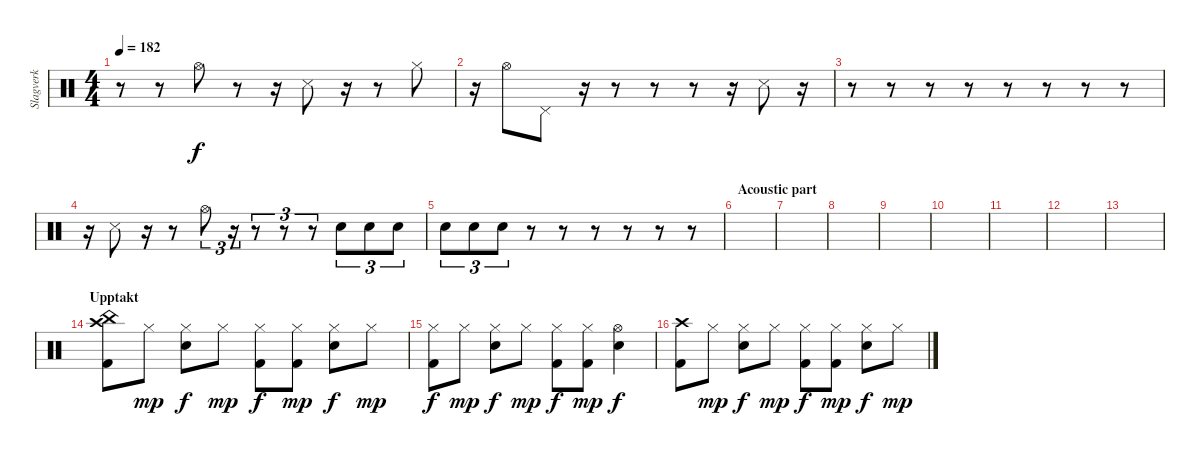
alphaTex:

\track ("Slagverk" "Slagverk") {instrument percussion}
\staff {score}
\articulation defaults
\ts (4 4)
\tempo 182
\clef neutral
\ks c
r.8{dy fff} r.8 "Hi-Hat (open)".8{dy f} r.8 r.16 "Snare (side stick) 3".8 r.16 r.8 "Hi-Hat (closed)".8 |
r.16 "Hi-Hat (open)".8 "Pedal Hi-Hat (hit)".8 r.16 r.8 r.8 r.8 r.16 "Snare (side stick) 3".8 r.16 |
r.8 r.8 r.8 r.8 r.8 r.8 r.8 r.8 |
r.16 "Snare (side stick) 3".8 r.16 r.8 "Hi-Hat (open)".8{tu (3 2)} r.16{tu (3 2)} r.8{tu (3 2)} r.8{tu (3 2)} r.8{tu (3 2)} "Electric Snare (hit)".8{tu (3 2)} "Electric Snare (hit)".8{tu (3 2)} "Electric Snare (hit)".8{tu (3 2)} |
"Electric Snare (hit)".8{tu (3 2)} "Electric Snare (hit)".8{tu (3 2)} "Electric Snare (hit)".8{tu (3 2)} r.8 r.8 r.8 r.8 r.8 r.8 |
\section ("" "Acoustic part")
|
|
|
|
|
|
|
|
\section ("" "Upptakt")
("Crash high (hit)" "China (hit)" "Kick (hit) 2").8 "Hi-Hat (closed)".8{dy mp} ("Hi-Hat (closed)" "Electric Snare (hit)").8{dy f} "Hi-Hat (closed)".8{dy mp} ("Hi-Hat (closed)" "Kick (hit) 2").8{dy f} ("Hi-Hat (closed)" "Kick (hit) 2").8{dy mp} ("Hi-Hat (closed)" "Electric Snare (hit)").8{dy f} "Hi-Hat (closed)".8{dy mp} |
("Hi-Hat (closed)" "Kick (hit) 2").8{dy f} "Hi-Hat (closed)".8{dy mp} ("Hi-Hat (closed)" "Electric Snare (hit)").8{dy f} "Hi-Hat (closed)".8{dy mp} ("Hi-Hat (closed)" "Kick (hit) 2").8{dy f} ("Hi-Hat (closed)" "Kick (hit) 2").8{dy mp} ("Hi-Hat (open)" "Electric Snare (hit)").4{dy f} |
("Crash high (hit)" "Kick (hit) 2").8 "Hi-Hat (closed)".8{dy mp} ("Hi-Hat (closed)" "Electric Snare (hit)").8{dy f} "Hi-Hat (closed)".8{dy mp} ("Hi-Hat (closed)" "Kick (hit) 2").8{dy f} ("Hi-Hat (closed)" "Kick (hit) 2").8{dy mp} ("Hi-Hat (closed)" "Electric Snare (hit)").8{dy f} "Hi-Hat (closed)".8{dy mp}
